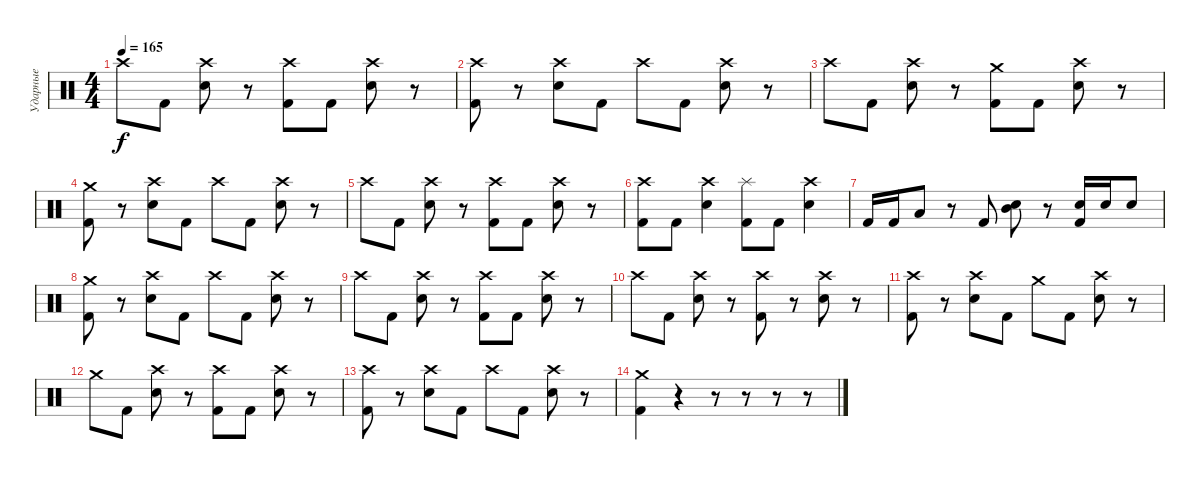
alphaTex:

\track ("Ударные" "Ударные") {instrument percussion}
\staff {score}
\articulation defaults
\ts (4 4)
\tempo 165
\clef neutral
\ks c "Crash high (hit)".8{dy f} "Kick (hit) 2".8
("Crash high (hit)" "Snare (hit) 2").8 r.8 ("Crash high (hit)" "Kick (hit) 2").8 "Kick (hit) 2".8 ("Crash high (hit)" "Snare (hit) 2").8 r.8 |
("Crash high (hit)" "Kick (hit) 2").8 r.8 ("Crash high (hit)" "Snare (hit) 2").8 "Kick (hit) 2".8 "Crash high (hit)".8 "Kick (hit) 2".8 ("Crash high (hit)" "Snare (hit) 2").8 r.8 |
"Crash high (hit)".8 "Kick (hit) 2".8 ("Crash high (hit)" "Snare (hit) 2").8 r.8 ("Crash medium (hit)" "Kick (hit) 2").8 "Kick (hit) 2".8 ("Crash high (hit)" "Snare (hit) 2").8 r.8 |
("Crash medium (hit)" "Kick (hit) 2").8 r.8 ("Crash high (hit)" "Snare (hit) 2").8 "Kick (hit) 2".8 "Crash high (hit)".8 "Kick (hit) 2".8 ("Crash high (hit)" "Snare (hit) 2").8 r.8 |
"Crash high (hit)".8 "Kick (hit) 2".8 ("Crash high (hit)" "Snare (hit) 2").8 r.8 ("Crash high (hit)" "Kick (hit) 2").8 "Kick (hit) 2".8 ("Crash high (hit)" "Snare (hit) 2").8 r.8 |
("Crash high (hit)" "Kick (hit) 2").8 "Kick (hit) 2".8 ("Crash high (hit)" "Snare (hit) 2").4 ("Splash (hit)" "Kick (hit) 2").8 "Kick (hit) 2".8 ("Crash high (hit)" "Snare (hit) 2").4 |
"Kick (hit) 2".16 "Kick (hit) 2".16 "Low Tom (hit)".8 r.8 "Kick (hit) 2".8 ("Snare (hit) 2" "Mid Tom (hit)").8 r.8 ("Snare (hit) 2" "Kick (hit) 2").16 "Snare (hit) 2".16 "Snare (hit) 2".8 |
("Crash medium (hit)" "Kick (hit) 2").8 r.8 ("Crash high (hit)" "Snare (hit) 2").8 "Kick (hit) 2".8 "Crash high (hit)".8 "Kick (hit) 2".8 ("Crash high (hit)" "Snare (hit) 2").8 r.8 |
"Crash high (hit)".8 "Kick (hit) 2".8 ("Crash high (hit)" "Snare (hit) 2").8 r.8 ("Crash high (hit)" "Kick (hit) 2").8 "Kick (hit) 2".8 ("Crash high (hit)" "Snare (hit) 2").8 r.8 |
"Crash high (hit)".8 "Kick (hit) 2".8 ("Crash high (hit)" "Snare (hit) 2").8 r.8 ("Crash high (hit)" "Kick (hit) 2").8 r.8 ("Crash high (hit)" "Snare (hit) 2").8 r.8 |
("Crash high (hit)" "Kick (hit) 2").8 r.8 ("Crash high (hit)" "Snare (hit) 2").8 "Kick (hit) 2".8 "Crash medium (hit)".8 "Kick (hit) 2".8 ("Crash high (hit)" "Snare (hit) 2").8 r.8 |
"Crash medium (hit)".8 "Kick (hit) 2".8 ("Crash high (hit)" "Snare (hit) 2").8 r.8 ("Crash high (hit)" "Kick (hit) 2").8 "Kick (hit) 2".8 ("Crash high (hit)" "Snare (hit) 2").8 r.8 |
("Crash high (hit)" "Kick (hit) 2").8 r.8 ("Crash high (hit)" "Snare (hit) 2").8 "Kick (hit) 2".8 "Crash high (hit)".8 "Kick (hit) 2".8 ("Crash high (hit)" "Snare (hit) 2").8 r.8 |
("Crash medium (hit)" "Kick (hit) 2").4 r.4 r.8 r.8 r.8 r.8
